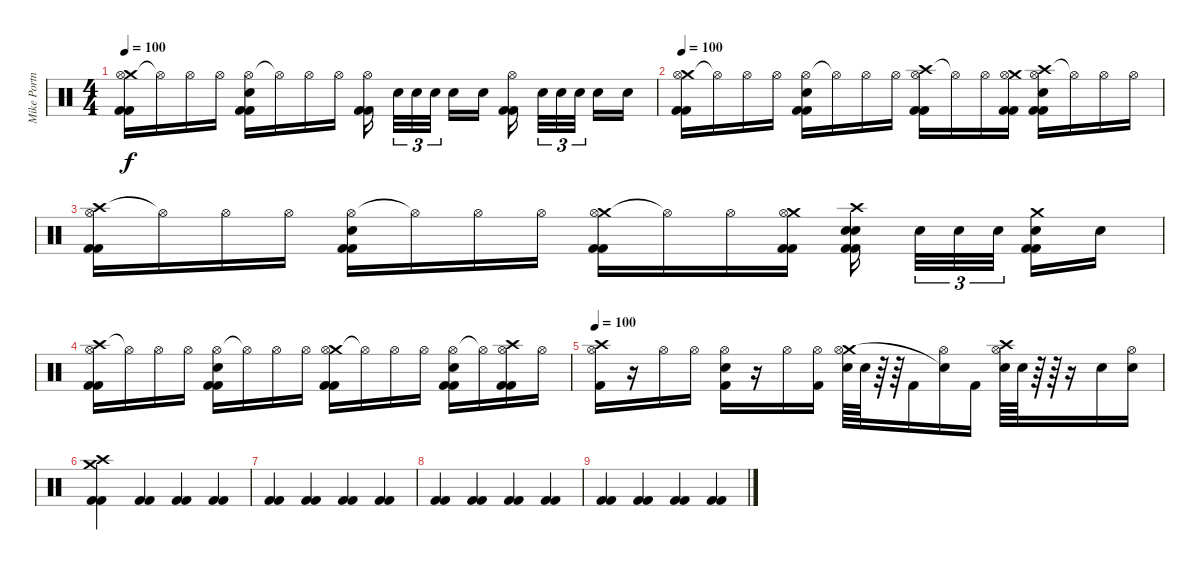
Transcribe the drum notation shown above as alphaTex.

\track ("Mike Portnoy" "Mike Portn") {instrument percussion}
\staff {score}
\articulation defaults
\ts (4 4)
\tempo 100
\clef neutral
\ks c
("Crash medium (hit)" "Hi-Hat (open)" "Kick (hit) 2" "Kick (hit) 2").16{dy f volume 16} "Hi-Hat (open)"{t}.16 "Hi-Hat (open)".16 "Hi-Hat (open)".16 ("Hi-Hat (open)" "Electric Snare (hit)" "Kick (hit) 2" "Kick (hit) 2").16 "Hi-Hat (open)"{t}.16 "Hi-Hat (open)".16 "Hi-Hat (open)".16 ("Hi-Hat (open)" "Kick (hit) 2" "Kick (hit) 2").16 "Electric Snare (hit)".32{tu (3 2)} "Electric Snare (hit)".32{tu (3 2)} "Electric Snare (hit)".32{tu (3 2)} "Electric Snare (hit)".16 "Electric Snare (hit)".16 ("Hi-Hat (open)" "Kick (hit) 2" "Kick (hit) 2").16 "Electric Snare (hit)".32{tu (3 2)} "Electric Snare (hit)".32{tu (3 2)} "Electric Snare (hit)".32{tu (3 2)} "Electric Snare (hit)".16 "Electric Snare (hit)".16 |
\tempo 100
("Crash medium (hit)" "Hi-Hat (open)" "Kick (hit) 2" "Kick (hit) 2").16 "Hi-Hat (open)"{t}.16 "Hi-Hat (open)".16 "Hi-Hat (open)".16 ("Hi-Hat (open)" "Electric Snare (hit)" "Kick (hit) 2" "Kick (hit) 2").16 "Hi-Hat (open)"{t}.16 "Hi-Hat (open)".16 "Hi-Hat (open)".16 ("Crash high (hit)" "Hi-Hat (open)" "Kick (hit) 2" "Kick (hit) 2").16 "Hi-Hat (open)"{t}.16 "Hi-Hat (open)".16 ("Crash medium (hit)" "Hi-Hat (open)" "Kick (hit) 2" "Kick (hit) 2").16 ("Crash high (hit)" "Hi-Hat (open)" "Electric Snare (hit)" "Kick (hit) 2" "Kick (hit) 2").16 "Hi-Hat (open)"{t}.16 "Hi-Hat (open)".16 "Hi-Hat (open)".16 |
("Crash high (hit)" "Hi-Hat (open)" "Kick (hit) 2" "Kick (hit) 2").16 "Hi-Hat (open)"{t}.16 "Hi-Hat (open)".16 "Hi-Hat (open)".16 ("Hi-Hat (open)" "Electric Snare (hit)" "Kick (hit) 2" "Kick (hit) 2").16 "Hi-Hat (open)"{t}.16 "Hi-Hat (open)".16 "Hi-Hat (open)".16 ("Crash medium (hit)" "Hi-Hat (open)" "Kick (hit) 2" "Kick (hit) 2").16 "Hi-Hat (open)"{t}.16 "Hi-Hat (open)".16 ("Crash medium (hit)" "Hi-Hat (open)" "Kick (hit) 2" "Kick (hit) 2").16 ("Crash high (hit)" "Electric Snare (hit)" "Electric Snare (hit)" "Kick (hit) 2" "Kick (hit) 2").16 "Electric Snare (hit)".32{tu (3 2)} "Electric Snare (hit)".32{tu (3 2)} "Electric Snare (hit)".32{tu (3 2)} ("Crash medium (hit)" "Electric Snare (hit)" "Kick (hit) 2" "Kick (hit) 2").16 "Electric Snare (hit)".16 |
("Crash high (hit)" "Hi-Hat (open)" "Kick (hit) 2" "Kick (hit) 2").16 "Hi-Hat (open)"{t}.16 "Hi-Hat (open)".16 "Hi-Hat (open)".16 ("Hi-Hat (open)" "Electric Snare (hit)" "Kick (hit) 2" "Kick (hit) 2").16 "Hi-Hat (open)"{t}.16 "Hi-Hat (open)".16 "Hi-Hat (open)".16 ("Crash medium (hit)" "Hi-Hat (open)" "Kick (hit) 2" "Kick (hit) 2").16 "Hi-Hat (open)"{t}.16 "Hi-Hat (open)".16 "Hi-Hat (open)".16 ("Hi-Hat (open)" "Electric Snare (hit)" "Kick (hit) 2" "Kick (hit) 2").16 "Hi-Hat (open)"{t}.16 ("Crash high (hit)" "Hi-Hat (open)" "Kick (hit) 2" "Kick (hit) 2").16 "Hi-Hat (open)".16 |
\tempo 100
("Crash high (hit)" "Hi-Hat (open)" "Kick (hit) 2").16 r.16 "Hi-Hat (open)".16 "Hi-Hat (open)".16 ("Hi-Hat (open)" "Electric Snare (hit)" "Kick (hit) 2").16 r.16 "Hi-Hat (open)".16 ("Hi-Hat (open)" "Kick (hit) 2").16 ("Crash medium (hit)" "Hi-Hat (open)" "Electric Snare (hit)").64 "Electric Snare (hit)".64 r.64 r.64 "Kick (hit) 2".16 ("Hi-Hat (open)" "Snare (hit)"{t}).16 "Kick (hit) 2".16 ("Crash high (hit)" "Hi-Hat (open)" "Electric Snare (hit)").64 "Electric Snare (hit)".64 r.64 r.64 r.16 "Electric Snare (hit)".16 ("Hi-Hat (open)" "Electric Snare (hit)").16 |
("Crash medium (hit)" "Crash high (hit)" "Kick (hit) 2" "Kick (hit) 2").4 ("Kick (hit) 2" "Kick (hit) 2").4 ("Kick (hit) 2" "Kick (hit) 2").4 ("Kick (hit) 2" "Kick (hit) 2").4 |
("Kick (hit) 2" "Kick (hit) 2").4 ("Kick (hit) 2" "Kick (hit) 2").4 ("Kick (hit) 2" "Kick (hit) 2").4 ("Kick (hit) 2" "Kick (hit) 2").4 |
("Kick (hit) 2" "Kick (hit) 2").4{volume 0} ("Kick (hit) 2" "Kick (hit) 2").4 ("Kick (hit) 2" "Kick (hit) 2").4 ("Kick (hit) 2" "Kick (hit) 2").4 |
("Kick (hit) 2" "Kick (hit) 2").4 ("Kick (hit) 2" "Kick (hit) 2").4 ("Kick (hit) 2" "Kick (hit) 2").4 ("Kick (hit) 2" "Kick (hit) 2").4
